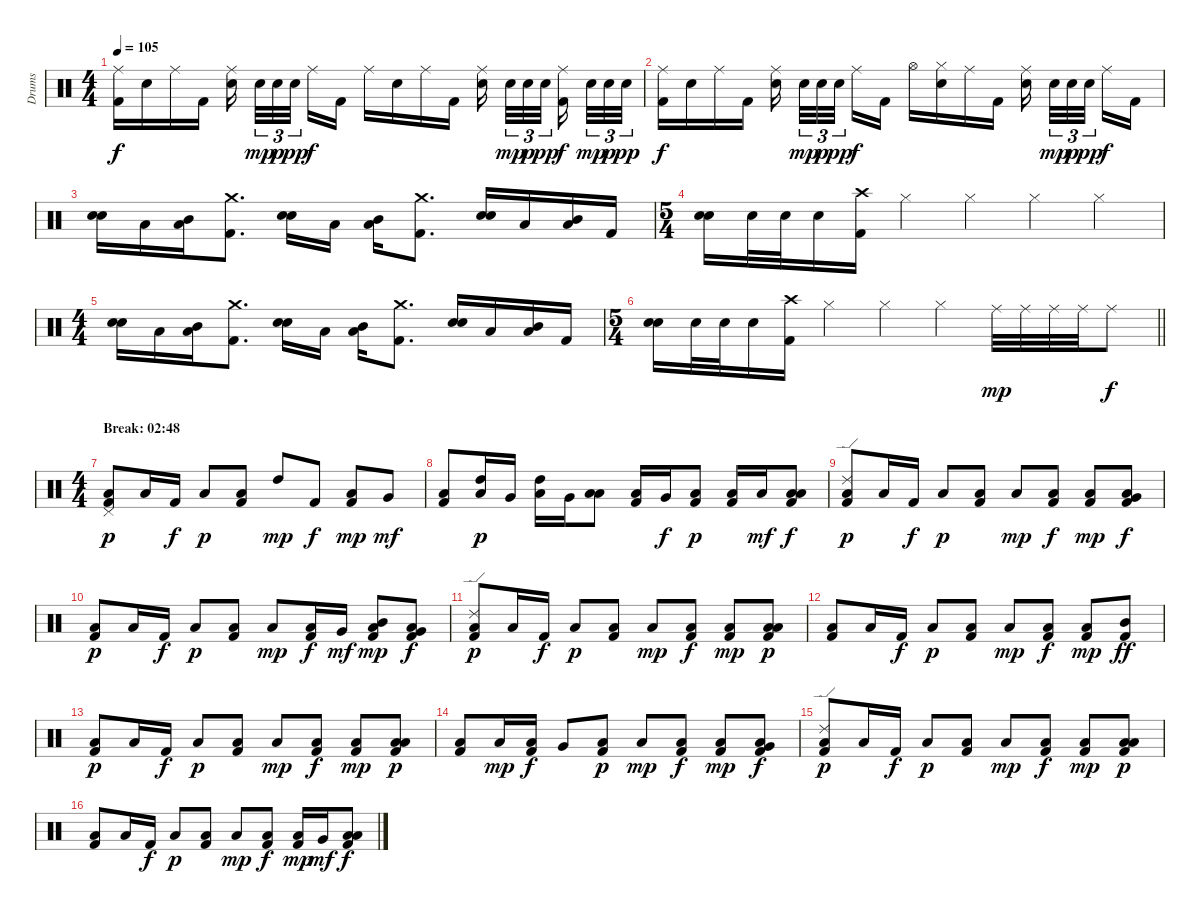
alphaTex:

\track ("Drums" "Drums") {instrument percussion}
\staff {score}
\articulation defaults
\ts (4 4)
\tempo 105
\clef neutral
\ks c
("Ride (middle)" "Kick (hit) 2").16{dy f} "Electric Snare (hit)".16 "Ride (middle)".16 "Kick (hit) 2".16 ("Ride (middle)" "Electric Snare (hit)").16{beam splitsecondary} "Electric Snare (hit)".32{tu (3 2) dy mp} "Electric Snare (hit)".32{tu (3 2) dy p} "Electric Snare (hit)".32{tu (3 2) dy pp beam splitsecondary} "Ride (middle)".16{dy f} "Kick (hit) 2".16 "Ride (middle)".16 "Electric Snare (hit)".16 "Ride (middle)".16 "Kick (hit) 2".16 ("Ride (middle)" "Electric Snare (hit)").16{beam splitsecondary} "Electric Snare (hit)".32{tu (3 2) dy mp} "Electric Snare (hit)".32{tu (3 2) dy p} "Electric Snare (hit)".32{tu (3 2) dy pp beam splitsecondary} ("Ride (middle)" "Kick (hit) 2").16{dy f beam splitsecondary} "Electric Snare (hit)".32{tu (3 2) dy mp} "Electric Snare (hit)".32{tu (3 2) dy p} "Electric Snare (hit)".32{tu (3 2) dy pp} |
("Ride (middle)" "Kick (hit) 2").16{dy f} "Electric Snare (hit)".16 "Ride (middle)".16 "Kick (hit) 2".16 ("Ride (middle)" "Electric Snare (hit)").16{beam splitsecondary} "Electric Snare (hit)".32{tu (3 2) dy mp} "Electric Snare (hit)".32{tu (3 2) dy p} "Electric Snare (hit)".32{tu (3 2) dy pp beam splitsecondary} "Ride (middle)".16{dy f} "Kick (hit) 2".16 "Hi-Hat (open)".16 ("Hi-Hat (closed)" "Electric Snare (hit)").16 "Ride (middle)".16 "Kick (hit) 2".16 ("Ride (middle)" "Electric Snare (hit)").16{beam splitsecondary} "Electric Snare (hit)".32{tu (3 2) dy mp} "Electric Snare (hit)".32{tu (3 2) dy p} "Electric Snare (hit)".32{tu (3 2) dy pp beam splitsecondary} "Ride (middle)".16{dy f} "Kick (hit) 2".16 |
("Electric Snare (hit)" "Electric Snare (hit)").16{bu 60} "Low Tom (hit)".16 ("Mid Tom (hit)" "Low Tom (hit)").16 ("Crash medium (hit)" "Kick (hit) 2").8{d} ("Electric Snare (hit)" "Electric Snare (hit)").16{bu 60} "Low Tom (hit)".16 ("Mid Tom (hit)" "Low Tom (hit)").16 ("Crash medium (hit)" "Kick (hit) 2").8{d} ("Electric Snare (hit)" "Electric Snare (hit)").16{bu 60} "Low Tom (hit)".16 ("Mid Tom (hit)" "Low Tom (hit)").16 "Kick (hit) 2".16 |
\ts (5 4)
("Electric Snare (hit)" "Electric Snare (hit)").16{bu 60} "Electric Snare (hit)".32 "Electric Snare (hit)".32 "Electric Snare (hit)".16 ("Crash high (hit)" "Kick (hit) 2").16 "Hi-Hat (closed)".4 "Hi-Hat (closed)".4 "Hi-Hat (closed)".4 "Hi-Hat (closed)".4 |
\ts (4 4)
("Electric Snare (hit)" "Electric Snare (hit)").16{bu 60} "Low Tom (hit)".16 ("Mid Tom (hit)" "Low Tom (hit)").16 ("Crash medium (hit)" "Kick (hit) 2").8{d} ("Electric Snare (hit)" "Electric Snare (hit)").16{bu 60} "Low Tom (hit)".16 ("Mid Tom (hit)" "Low Tom (hit)").16 ("Crash medium (hit)" "Kick (hit) 2").8{d} ("Electric Snare (hit)" "Electric Snare (hit)").16{bu 60} "Low Tom (hit)".16 ("Mid Tom (hit)" "Low Tom (hit)").16 "Kick (hit) 2".16 |
\ts (5 4)
\barLineRight lightlight
("Electric Snare (hit)" "Electric Snare (hit)").16{bu 60} "Electric Snare (hit)".32 "Electric Snare (hit)".32 "Electric Snare (hit)".16 ("Crash high (hit)" "Kick (hit) 2").16 "Hi-Hat (closed)".4 "Hi-Hat (closed)".4 "Hi-Hat (closed)".4 "Ride (middle)".32{dy mp} "Ride (middle)".32 "Ride (middle)".32 "Ride (middle)".32 "Ride (middle)".8{dy f} |
\ts (4 4)
\section ("" "Break: 02:48")
("Pedal Hi-Hat (hit)" "Low Floor Tom (hit)" "Kick (hit) 2").8{dy p volume 9} "Low Floor Tom (hit)".16 "Kick (hit) 2".16{dy f} "Low Floor Tom (hit)".8{dy p} ("Low Floor Tom (hit)" "Kick (hit) 2").8 "High Tom (hit)".8{dy mp} "Kick (hit) 2".8{dy f} ("Low Floor Tom (hit)" "Kick (hit) 2").8{dy mp} "Very Low Tom (hit)".8{dy mf} |
("Low Floor Tom (hit)" "Kick (hit) 2").8 ("High Tom (hit)" "Low Floor Tom (hit)").16{dy p} "Very Low Tom (hit)".16 ("High Tom (hit)" "Low Floor Tom (hit)").16 "Very Low Tom (hit)".16 ("Low Tom (hit)" "Low Floor Tom (hit)").8 ("Low Floor Tom (hit)" "Kick (hit) 2").16 "Very Low Tom (hit)".16{dy f} ("Low Floor Tom (hit)" "Kick (hit) 2").8{dy p} ("Low Floor Tom (hit)" "Kick (hit) 2").16 "Low Tom (hit)".16{dy mf} ("Low Tom (hit)" "Low Floor Tom (hit)" "Kick (hit) 2").8{dy f} |
("Ride (edge) 2" "Low Floor Tom (hit)" "Kick (hit) 2").8{dy p} "Low Floor Tom (hit)".16 "Kick (hit) 2".16{dy f} "Low Floor Tom (hit)".8{dy p} ("Low Floor Tom (hit)" "Kick (hit) 2").8 "Low Floor Tom (hit)".8{dy mp} ("Low Floor Tom (hit)" "Kick (hit) 2").8{dy f} ("Low Floor Tom (hit)" "Kick (hit) 2").8{dy mp} ("Very Low Tom (hit)" "Low Tom (hit)" "Kick (hit) 2").8{dy f} |
("Low Floor Tom (hit)" "Kick (hit) 2").8{dy p} "Low Floor Tom (hit)".16 "Kick (hit) 2".16{dy f} "Low Floor Tom (hit)".8{dy p} ("Low Floor Tom (hit)" "Kick (hit) 2").8 "Low Floor Tom (hit)".8{dy mp} ("Low Floor Tom (hit)" "Kick (hit) 2").16{dy f} "Very Low Tom (hit)".16{dy mf} ("Low Floor Tom (hit)" "Mid Tom (hit)" "Kick (hit) 2").8{dy mp} ("Very Low Tom (hit)" "Low Tom (hit)" "Kick (hit) 2").8{dy f} |
("Ride (edge) 2" "Low Floor Tom (hit)" "Kick (hit) 2").8{dy p} "Low Floor Tom (hit)".16 "Kick (hit) 2".16{dy f} "Low Floor Tom (hit)".8{dy p} ("Low Floor Tom (hit)" "Kick (hit) 2").8 "Low Floor Tom (hit)".8{dy mp} ("Low Floor Tom (hit)" "Kick (hit) 2").8{dy f} ("Low Floor Tom (hit)" "Kick (hit) 2").8{dy mp} ("Low Floor Tom (hit)" "Low Tom (hit)" "Kick (hit) 2").8{dy p} |
("Low Floor Tom (hit)" "Kick (hit) 2").8 "Low Floor Tom (hit)".16 "Kick (hit) 2".16{dy f} "Low Floor Tom (hit)".8{dy p} ("Low Floor Tom (hit)" "Kick (hit) 2").8 "Low Floor Tom (hit)".8{dy mp} ("Low Floor Tom (hit)" "Kick (hit) 2").8{dy f} ("Low Floor Tom (hit)" "Kick (hit) 2").8{dy mp} ("Mid Tom (hit)" "Kick (hit) 2").8{dy ff} |
("Low Floor Tom (hit)" "Kick (hit) 2").8{dy p} "Low Floor Tom (hit)".16 "Kick (hit) 2".16{dy f} "Low Floor Tom (hit)".8{dy p} ("Low Floor Tom (hit)" "Kick (hit) 2").8 "Low Floor Tom (hit)".8{dy mp} ("Low Floor Tom (hit)" "Kick (hit) 2").8{dy f} ("Low Floor Tom (hit)" "Kick (hit) 2").8{dy mp} ("Low Floor Tom (hit)" "Low Tom (hit)" "Kick (hit) 2").8{dy p} |
("Low Floor Tom (hit)" "Kick (hit) 2").8 "Low Floor Tom (hit)".16{dy mp} ("Low Tom (hit)" "Kick (hit) 2").16{dy f} "Very Low Tom (hit)".8 ("Low Floor Tom (hit)" "Kick (hit) 2").8{dy p} "Low Floor Tom (hit)".8{dy mp} ("Low Floor Tom (hit)" "Kick (hit) 2").8{dy f} ("Low Floor Tom (hit)" "Kick (hit) 2").8{dy mp} ("Low Floor Tom (hit)" "Very Low Tom (hit)" "Kick (hit) 2").8{dy f} |
("Ride (edge) 2" "Low Floor Tom (hit)" "Kick (hit) 2").8{dy p} "Low Floor Tom (hit)".16 "Kick (hit) 2".16{dy f} "Low Floor Tom (hit)".8{dy p} ("Low Floor Tom (hit)" "Kick (hit) 2").8 "Low Floor Tom (hit)".8{dy mp} ("Low Floor Tom (hit)" "Kick (hit) 2").8{dy f} ("Low Floor Tom (hit)" "Kick (hit) 2").8{dy mp} ("Low Floor Tom (hit)" "Low Tom (hit)" "Kick (hit) 2").8{dy p} |
("Low Floor Tom (hit)" "Kick (hit) 2").8 "Low Floor Tom (hit)".16 "Kick (hit) 2".16{dy f} "Low Floor Tom (hit)".8{dy p} ("Low Floor Tom (hit)" "Kick (hit) 2").8 "Low Floor Tom (hit)".8{dy mp} ("Low Floor Tom (hit)" "Kick (hit) 2").8{dy f} ("Low Floor Tom (hit)" "Kick (hit) 2").16{dy mp} "Very Low Tom (hit)".16{dy mf} ("Low Tom (hit)" "Low Tom (hit)" "Kick (hit) 2").8{dy f}
